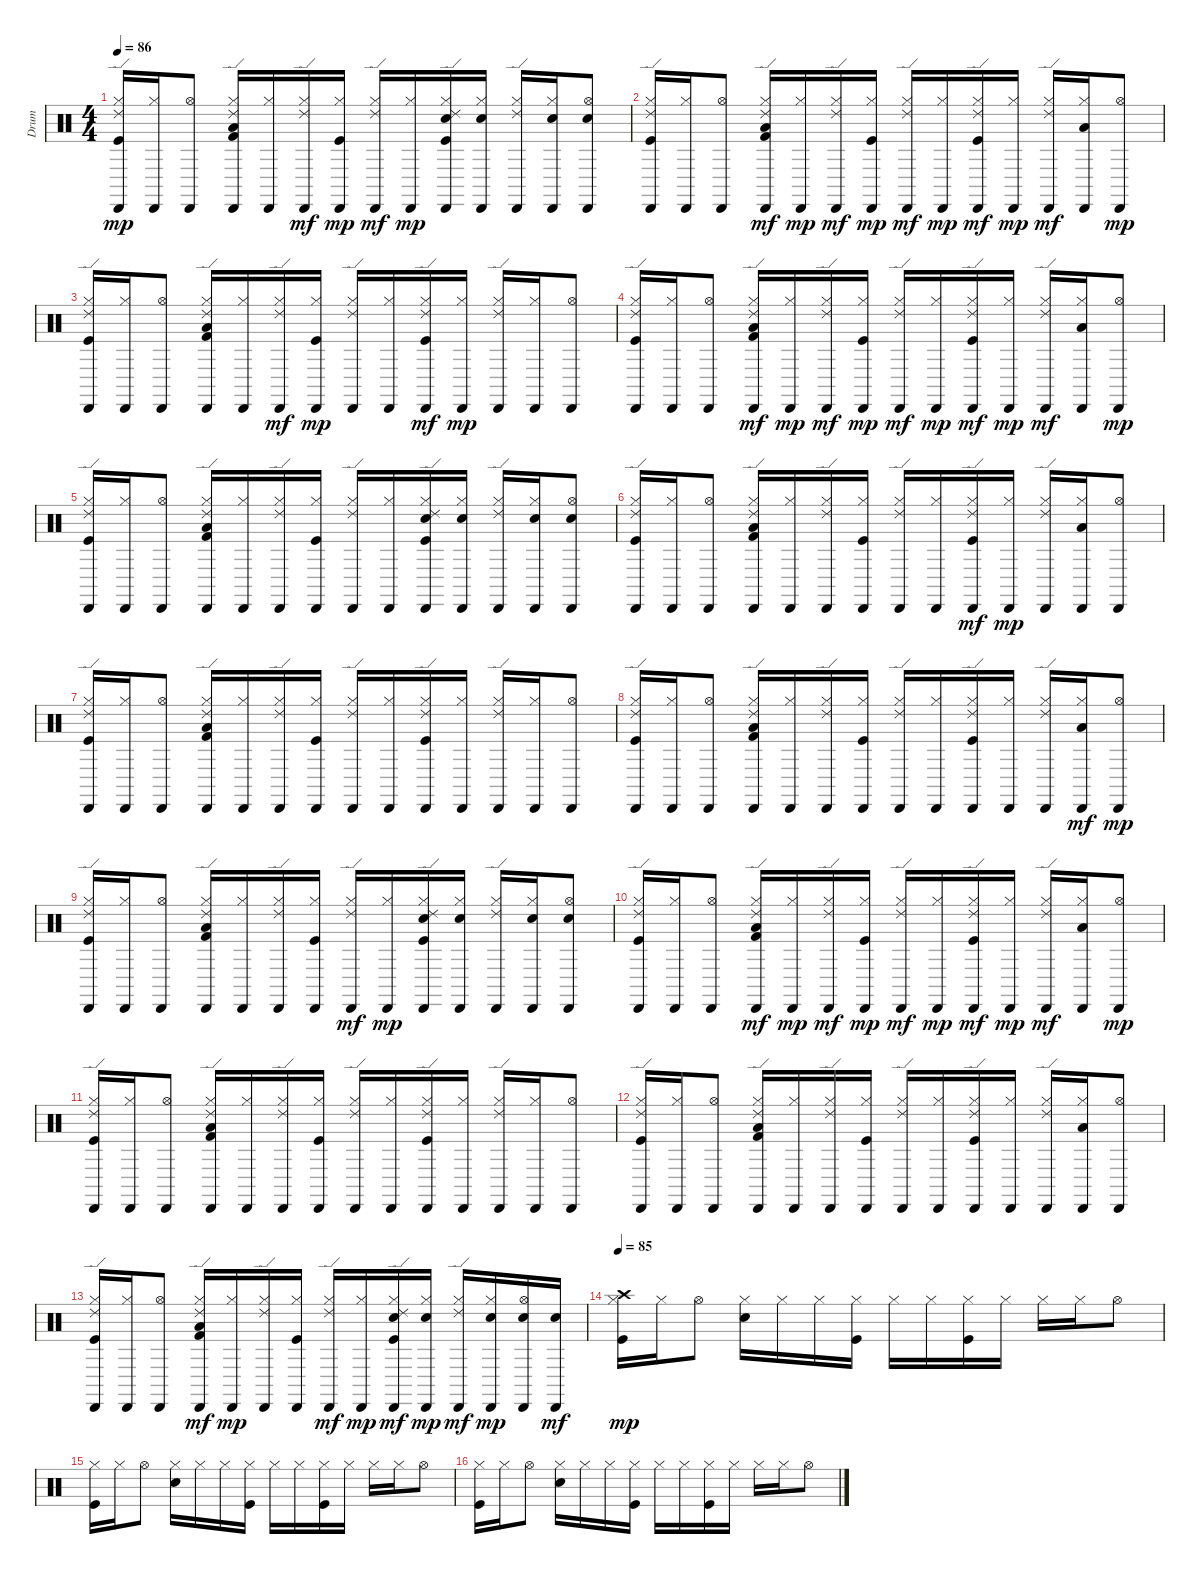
\track ("Drum" "Drum") {instrument percussion}
\staff {score}
\articulation defaults
\ts (4 4)
\tempo 86
\clef neutral
\ks c
("Hi-Hat (closed)" "Cabasa (hit)" "Kick (hit)" "Ride (edge) 2").16{dy mp} ("Hi-Hat (closed)" "Cabasa (hit)").16 ("Cabasa (hit)" "Hi-Hat (open)").8 ("Cabasa (hit)" "Hi-Hat (closed)" "Low Tom (hit)" "Ride (edge) 2" "Kick (hit) 2").16 ("Hi-Hat (closed)" "Cabasa (hit)").16 ("Cabasa (hit)" "Hi-Hat (closed)" "Ride (edge) 2").16{dy mf} ("Cabasa (hit)" "Hi-Hat (closed)" "Kick (hit)").16{dy mp} ("Cabasa (hit)" "Hi-Hat (closed)" "Ride (edge) 2").16{dy mf} ("Hi-Hat (closed)" "Cabasa (hit)").16{dy mp} ("Snare (hit) 2" "Ride (edge) 2" "Hi-Hat (closed)" "Cabasa (hit)" "Kick (hit)").16 ("Snare (hit) 2" "Hi-Hat (closed)" "Cabasa (hit)").16 ("Ride (edge) 2" "Hi-Hat (closed)" "Cabasa (hit)").16 ("Snare (hit) 2" "Hi-Hat (closed)" "Cabasa (hit)").16 ("Hi-Hat (open)" "Cabasa (hit)" "Snare (hit) 2").8 |
("Hi-Hat (closed)" "Kick (hit)" "Cabasa (hit)" "Ride (edge) 2").16 ("Hi-Hat (closed)" "Cabasa (hit)").16 ("Hi-Hat (open)" "Cabasa (hit)").8 ("Hi-Hat (closed)" "Kick (hit) 2" "Cabasa (hit)" "Ride (edge) 2" "Low Tom (hit)").16{dy mf} ("Hi-Hat (closed)" "Cabasa (hit)").16{dy mp} ("Hi-Hat (closed)" "Cabasa (hit)" "Ride (edge) 2").16{dy mf} ("Hi-Hat (closed)" "Kick (hit)" "Cabasa (hit)").16{dy mp} ("Hi-Hat (closed)" "Cabasa (hit)" "Ride (edge) 2").16{dy mf} ("Hi-Hat (closed)" "Cabasa (hit)").16{dy mp} ("Hi-Hat (closed)" "Kick (hit)" "Cabasa (hit)" "Ride (edge) 2").16{dy mf} ("Hi-Hat (closed)" "Cabasa (hit)").16{dy mp} ("Hi-Hat (closed)" "Cabasa (hit)" "Ride (edge) 2").16{dy mf} ("Hi-Hat (closed)" "Cabasa (hit)" "Low Tom (hit)").16 ("Hi-Hat (open)" "Cabasa (hit)").8{dy mp} |
("Ride (edge) 2" "Hi-Hat (closed)" "Kick (hit)" "Cabasa (hit)").16 ("Cabasa (hit)" "Hi-Hat (closed)").16 ("Cabasa (hit)" "Hi-Hat (open)").8 ("Low Tom (hit)" "Hi-Hat (closed)" "Kick (hit) 2" "Ride (edge) 2" "Cabasa (hit)").16 ("Cabasa (hit)" "Hi-Hat (closed)").16 ("Hi-Hat (closed)" "Cabasa (hit)" "Ride (edge) 2").16{dy mf} ("Hi-Hat (closed)" "Kick (hit)" "Cabasa (hit)").16{dy mp} ("Ride (edge) 2" "Cabasa (hit)" "Hi-Hat (closed)").16 ("Cabasa (hit)" "Hi-Hat (closed)").16 ("Kick (hit)" "Cabasa (hit)" "Hi-Hat (closed)" "Ride (edge) 2").16{dy mf} ("Cabasa (hit)" "Hi-Hat (closed)").16{dy mp} ("Cabasa (hit)" "Ride (edge) 2" "Hi-Hat (closed)").16 ("Hi-Hat (closed)" "Cabasa (hit)").16 ("Hi-Hat (open)" "Cabasa (hit)").8 |
("Hi-Hat (closed)" "Kick (hit)" "Cabasa (hit)" "Ride (edge) 2").16 ("Hi-Hat (closed)" "Cabasa (hit)").16 ("Hi-Hat (open)" "Cabasa (hit)").8 ("Hi-Hat (closed)" "Kick (hit) 2" "Cabasa (hit)" "Ride (edge) 2" "Low Tom (hit)").16{dy mf} ("Hi-Hat (closed)" "Cabasa (hit)").16{dy mp} ("Hi-Hat (closed)" "Cabasa (hit)" "Ride (edge) 2").16{dy mf} ("Hi-Hat (closed)" "Kick (hit)" "Cabasa (hit)").16{dy mp} ("Hi-Hat (closed)" "Cabasa (hit)" "Ride (edge) 2").16{dy mf} ("Hi-Hat (closed)" "Cabasa (hit)").16{dy mp} ("Hi-Hat (closed)" "Kick (hit)" "Cabasa (hit)" "Ride (edge) 2").16{dy mf} ("Hi-Hat (closed)" "Cabasa (hit)").16{dy mp} ("Hi-Hat (closed)" "Cabasa (hit)" "Ride (edge) 2").16{dy mf} ("Hi-Hat (closed)" "Cabasa (hit)" "Low Tom (hit)").16 ("Hi-Hat (open)" "Cabasa (hit)").8{dy mp} |
("Cabasa (hit)" "Kick (hit)" "Hi-Hat (closed)" "Ride (edge) 2").16 ("Cabasa (hit)" "Hi-Hat (closed)").16 ("Cabasa (hit)" "Hi-Hat (open)").8 ("Low Tom (hit)" "Ride (edge) 2" "Cabasa (hit)" "Kick (hit) 2" "Hi-Hat (closed)").16 ("Cabasa (hit)" "Hi-Hat (closed)").16 ("Ride (edge) 2" "Cabasa (hit)" "Hi-Hat (closed)").16 ("Cabasa (hit)" "Kick (hit)" "Hi-Hat (closed)").16 ("Ride (edge) 2" "Cabasa (hit)" "Hi-Hat (closed)").16 ("Cabasa (hit)" "Hi-Hat (closed)").16 ("Snare (hit) 2" "Ride (edge) 2" "Cabasa (hit)" "Kick (hit)" "Hi-Hat (closed)").16 ("Snare (hit) 2" "Cabasa (hit)" "Hi-Hat (closed)").16 ("Ride (edge) 2" "Cabasa (hit)" "Hi-Hat (closed)").16 ("Snare (hit) 2" "Cabasa (hit)" "Hi-Hat (closed)").16 ("Snare (hit) 2" "Cabasa (hit)" "Hi-Hat (open)").8 |
("Ride (edge) 2" "Hi-Hat (closed)" "Cabasa (hit)" "Kick (hit)").16 ("Cabasa (hit)" "Hi-Hat (closed)").16 ("Hi-Hat (open)" "Cabasa (hit)").8 ("Cabasa (hit)" "Ride (edge) 2" "Kick (hit) 2" "Low Tom (hit)" "Hi-Hat (closed)").16 ("Cabasa (hit)" "Hi-Hat (closed)").16 ("Ride (edge) 2" "Hi-Hat (closed)" "Cabasa (hit)").16 ("Kick (hit)" "Cabasa (hit)" "Hi-Hat (closed)").16 ("Ride (edge) 2" "Cabasa (hit)" "Hi-Hat (closed)").16 ("Cabasa (hit)" "Hi-Hat (closed)").16 ("Cabasa (hit)" "Hi-Hat (closed)" "Kick (hit)" "Ride (edge) 2").16{dy mf} ("Cabasa (hit)" "Hi-Hat (closed)").16{dy mp} ("Cabasa (hit)" "Ride (edge) 2" "Hi-Hat (closed)").16 ("Low Tom (hit)" "Hi-Hat (closed)" "Cabasa (hit)").16 ("Cabasa (hit)" "Hi-Hat (open)").8 |
("Cabasa (hit)" "Kick (hit)" "Hi-Hat (closed)" "Ride (edge) 2").16 ("Cabasa (hit)" "Hi-Hat (closed)").16 ("Cabasa (hit)" "Hi-Hat (open)").8 ("Low Tom (hit)" "Ride (edge) 2" "Cabasa (hit)" "Kick (hit) 2" "Hi-Hat (closed)").16 ("Cabasa (hit)" "Hi-Hat (closed)").16 ("Ride (edge) 2" "Cabasa (hit)" "Hi-Hat (closed)").16 ("Cabasa (hit)" "Kick (hit)" "Hi-Hat (closed)").16 ("Ride (edge) 2" "Cabasa (hit)" "Hi-Hat (closed)").16 ("Cabasa (hit)" "Hi-Hat (closed)").16 ("Ride (edge) 2" "Cabasa (hit)" "Kick (hit)" "Hi-Hat (closed)").16 ("Cabasa (hit)" "Hi-Hat (closed)").16 ("Ride (edge) 2" "Cabasa (hit)" "Hi-Hat (closed)").16 ("Cabasa (hit)" "Hi-Hat (closed)").16 ("Cabasa (hit)" "Hi-Hat (open)").8 |
("Cabasa (hit)" "Hi-Hat (closed)" "Kick (hit)" "Ride (edge) 2").16 ("Cabasa (hit)" "Hi-Hat (closed)").16 ("Hi-Hat (open)" "Cabasa (hit)").8 ("Low Tom (hit)" "Kick (hit) 2" "Cabasa (hit)" "Ride (edge) 2" "Hi-Hat (closed)").16 ("Cabasa (hit)" "Hi-Hat (closed)").16 ("Ride (edge) 2" "Hi-Hat (closed)" "Cabasa (hit)").16 ("Hi-Hat (closed)" "Cabasa (hit)" "Kick (hit)").16 ("Hi-Hat (closed)" "Ride (edge) 2" "Cabasa (hit)").16 ("Cabasa (hit)" "Hi-Hat (closed)").16 ("Ride (edge) 2" "Cabasa (hit)" "Kick (hit)" "Hi-Hat (closed)").16 ("Hi-Hat (closed)" "Cabasa (hit)").16 ("Cabasa (hit)" "Ride (edge) 2" "Hi-Hat (closed)").16 ("Hi-Hat (closed)" "Cabasa (hit)" "Low Tom (hit)").16{dy mf} ("Cabasa (hit)" "Hi-Hat (open)").8{dy mp} |
("Ride (edge) 2" "Cabasa (hit)" "Hi-Hat (closed)" "Kick (hit)").16 ("Cabasa (hit)" "Hi-Hat (closed)").16 ("Cabasa (hit)" "Hi-Hat (open)").8 ("Low Tom (hit)" "Ride (edge) 2" "Cabasa (hit)" "Kick (hit) 2" "Hi-Hat (closed)").16 ("Hi-Hat (closed)" "Cabasa (hit)").16 ("Cabasa (hit)" "Ride (edge) 2" "Hi-Hat (closed)").16 ("Hi-Hat (closed)" "Cabasa (hit)" "Kick (hit)").16 ("Cabasa (hit)" "Hi-Hat (closed)" "Ride (edge) 2").16{dy mf} ("Cabasa (hit)" "Hi-Hat (closed)").16{dy mp} ("Ride (edge) 2" "Cabasa (hit)" "Hi-Hat (closed)" "Kick (hit)" "Snare (hit) 2").16 ("Cabasa (hit)" "Snare (hit) 2" "Hi-Hat (closed)").16 ("Hi-Hat (closed)" "Ride (edge) 2" "Cabasa (hit)").16 ("Cabasa (hit)" "Hi-Hat (closed)" "Snare (hit) 2").16 ("Hi-Hat (open)" "Cabasa (hit)" "Snare (hit) 2").8 |
("Hi-Hat (closed)" "Kick (hit)" "Cabasa (hit)" "Ride (edge) 2").16 ("Hi-Hat (closed)" "Cabasa (hit)").16 ("Hi-Hat (open)" "Cabasa (hit)").8 ("Hi-Hat (closed)" "Kick (hit) 2" "Cabasa (hit)" "Ride (edge) 2" "Low Tom (hit)").16{dy mf} ("Hi-Hat (closed)" "Cabasa (hit)").16{dy mp} ("Hi-Hat (closed)" "Cabasa (hit)" "Ride (edge) 2").16{dy mf} ("Hi-Hat (closed)" "Kick (hit)" "Cabasa (hit)").16{dy mp} ("Hi-Hat (closed)" "Cabasa (hit)" "Ride (edge) 2").16{dy mf} ("Hi-Hat (closed)" "Cabasa (hit)").16{dy mp} ("Hi-Hat (closed)" "Kick (hit)" "Cabasa (hit)" "Ride (edge) 2").16{dy mf} ("Hi-Hat (closed)" "Cabasa (hit)").16{dy mp} ("Hi-Hat (closed)" "Cabasa (hit)" "Ride (edge) 2").16{dy mf} ("Hi-Hat (closed)" "Cabasa (hit)" "Low Tom (hit)").16 ("Hi-Hat (open)" "Cabasa (hit)").8{dy mp} |
("Cabasa (hit)" "Kick (hit)" "Hi-Hat (closed)" "Ride (edge) 2").16 ("Cabasa (hit)" "Hi-Hat (closed)").16 ("Cabasa (hit)" "Hi-Hat (open)").8 ("Low Tom (hit)" "Ride (edge) 2" "Cabasa (hit)" "Kick (hit) 2" "Hi-Hat (closed)").16 ("Cabasa (hit)" "Hi-Hat (closed)").16 ("Ride (edge) 2" "Cabasa (hit)" "Hi-Hat (closed)").16 ("Cabasa (hit)" "Kick (hit)" "Hi-Hat (closed)").16 ("Ride (edge) 2" "Cabasa (hit)" "Hi-Hat (closed)").16 ("Cabasa (hit)" "Hi-Hat (closed)").16 ("Ride (edge) 2" "Cabasa (hit)" "Kick (hit)" "Hi-Hat (closed)").16 ("Cabasa (hit)" "Hi-Hat (closed)").16 ("Ride (edge) 2" "Cabasa (hit)" "Hi-Hat (closed)").16 ("Cabasa (hit)" "Hi-Hat (closed)").16 ("Cabasa (hit)" "Hi-Hat (open)").8 |
("Cabasa (hit)" "Kick (hit)" "Hi-Hat (closed)" "Ride (edge) 2").16 ("Cabasa (hit)" "Hi-Hat (closed)").16 ("Cabasa (hit)" "Hi-Hat (open)").8 ("Low Tom (hit)" "Ride (edge) 2" "Cabasa (hit)" "Kick (hit) 2" "Hi-Hat (closed)").16 ("Cabasa (hit)" "Hi-Hat (closed)").16 ("Ride (edge) 2" "Cabasa (hit)" "Hi-Hat (closed)").16 ("Cabasa (hit)" "Kick (hit)" "Hi-Hat (closed)").16 ("Ride (edge) 2" "Cabasa (hit)" "Hi-Hat (closed)").16 ("Cabasa (hit)" "Hi-Hat (closed)").16 ("Ride (edge) 2" "Cabasa (hit)" "Kick (hit)" "Hi-Hat (closed)").16 ("Cabasa (hit)" "Hi-Hat (closed)").16 ("Ride (edge) 2" "Cabasa (hit)" "Hi-Hat (closed)").16 ("Low Tom (hit)" "Cabasa (hit)" "Hi-Hat (closed)").16 ("Cabasa (hit)" "Hi-Hat (open)").8 |
("Hi-Hat (closed)" "Kick (hit)" "Cabasa (hit)" "Ride (edge) 2").16 ("Cabasa (hit)" "Hi-Hat (closed)").16 ("Cabasa (hit)" "Hi-Hat (open)").8 ("Hi-Hat (closed)" "Kick (hit) 2" "Cabasa (hit)" "Ride (edge) 2" "Low Tom (hit)").16{dy mf} ("Hi-Hat (closed)" "Cabasa (hit)").16{dy mp} ("Ride (edge) 2" "Cabasa (hit)" "Hi-Hat (closed)").16 ("Hi-Hat (closed)" "Kick (hit)" "Cabasa (hit)").16 ("Hi-Hat (closed)" "Cabasa (hit)" "Ride (edge) 2").16{dy mf} ("Hi-Hat (closed)" "Cabasa (hit)").16{dy mp} ("Snare (hit) 2" "Hi-Hat (closed)" "Kick (hit)" "Cabasa (hit)" "Ride (edge) 2").16{dy mf} ("Snare (hit) 2" "Cabasa (hit)" "Hi-Hat (closed)").16{dy mp} ("Hi-Hat (closed)" "Cabasa (hit)" "Ride (edge) 2").16{dy mf} ("Snare (hit) 2" "Cabasa (hit)" "Hi-Hat (closed)").16{dy mp} ("Snare (hit) 2" "Cabasa (hit)" "Hi-Hat (open)").16 ("Snare (hit) 2" "Cabasa (hit)").16{dy mf} |
\tempo 85
("Crash high (hit)" "Kick (hit)" "Hi-Hat (closed)").16{dy mp} "Hi-Hat (closed)".16 "Hi-Hat (open)".8 ("Hi-Hat (closed)" "Snare (hit) 2").16 "Hi-Hat (closed)".16 "Hi-Hat (closed)".16 ("Kick (hit)" "Hi-Hat (closed)").16 "Hi-Hat (closed)".16 "Hi-Hat (closed)".16 ("Kick (hit)" "Hi-Hat (closed)").16 "Hi-Hat (closed)".16 "Hi-Hat (closed)".16 "Hi-Hat (closed)".16 "Hi-Hat (open)".8 |
("Hi-Hat (closed)" "Kick (hit)").16 "Hi-Hat (closed)".16 "Hi-Hat (open)".8 ("Hi-Hat (closed)" "Snare (hit) 2").16 "Hi-Hat (closed)".16 "Hi-Hat (closed)".16 ("Kick (hit)" "Hi-Hat (closed)").16 "Hi-Hat (closed)".16 "Hi-Hat (closed)".16 ("Kick (hit)" "Hi-Hat (closed)").16 "Hi-Hat (closed)".16 "Hi-Hat (closed)".16 "Hi-Hat (closed)".16 "Hi-Hat (open)".8 |
("Kick (hit)" "Hi-Hat (closed)").16 "Hi-Hat (closed)".16 "Hi-Hat (open)".8 ("Snare (hit) 2" "Hi-Hat (closed)").16 "Hi-Hat (closed)".16 "Hi-Hat (closed)".16 ("Kick (hit)" "Hi-Hat (closed)").16 "Hi-Hat (closed)".16 "Hi-Hat (closed)".16 ("Kick (hit)" "Hi-Hat (closed)").16 "Hi-Hat (closed)".16 "Hi-Hat (closed)".16 "Hi-Hat (closed)".16 "Hi-Hat (open)".8
